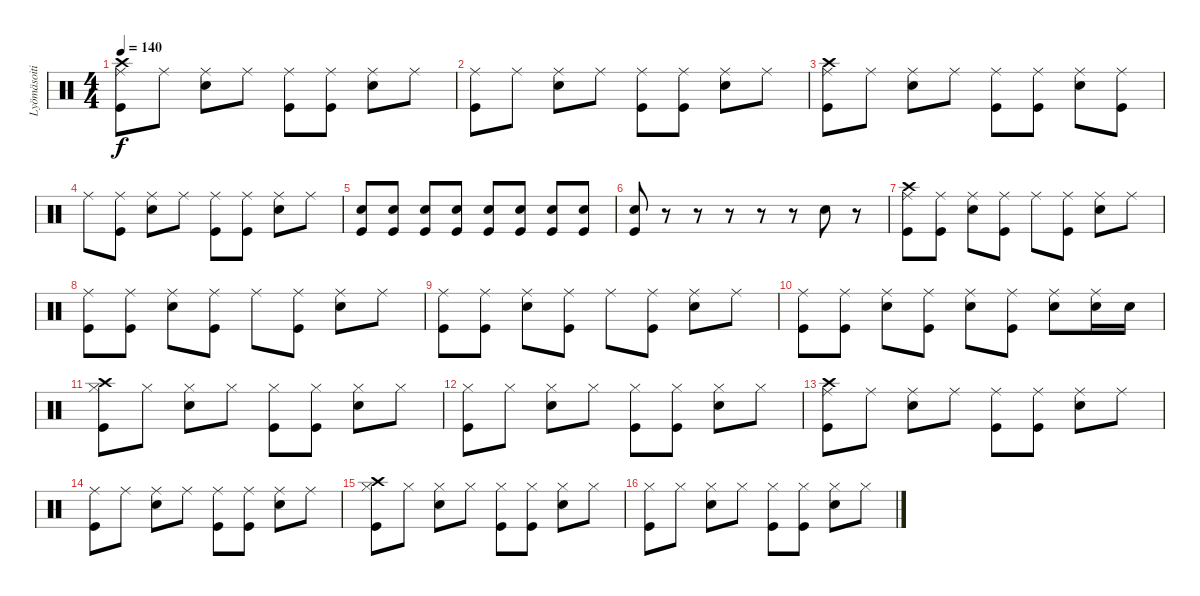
\track ("Lyömäsoitin" "Lyömäsoiti") {instrument percussion}
\staff {score}
\articulation defaults
\ts (4 4)
\tempo 140
\clef neutral
\ks c
("Crash high (hit)" "Ride (middle)" "Kick (hit)").8{dy f} "Ride (middle)".8 ("Ride (middle)" "Snare (hit) 2").8 "Ride (middle)".8 ("Ride (middle)" "Kick (hit)").8 ("Ride (middle)" "Kick (hit)").8 ("Ride (middle)" "Snare (hit) 2").8 "Ride (middle)".8 |
("Ride (middle)" "Kick (hit)").8 "Ride (middle)".8 ("Ride (middle)" "Snare (hit) 2").8 "Ride (middle)".8 ("Ride (middle)" "Kick (hit)").8 ("Ride (middle)" "Kick (hit)").8 ("Ride (middle)" "Snare (hit) 2").8 "Ride (middle)".8 |
("Crash high (hit)" "Ride (middle)" "Kick (hit)").8 "Ride (middle)".8 ("Ride (middle)" "Snare (hit) 2").8 "Ride (middle)".8 ("Ride (middle)" "Kick (hit)").8 ("Ride (middle)" "Kick (hit)").8 ("Ride (middle)" "Snare (hit) 2").8 ("Ride (middle)" "Kick (hit)").8 |
"Ride (middle)".8 ("Ride (middle)" "Kick (hit)").8 ("Ride (middle)" "Snare (hit) 2").8 "Ride (middle)".8 ("Ride (middle)" "Kick (hit)").8 ("Ride (middle)" "Kick (hit)").8 ("Ride (middle)" "Snare (hit) 2").8 "Ride (middle)".8 |
("Snare (hit) 2" "Kick (hit)").8 ("Snare (hit) 2" "Kick (hit)").8 ("Snare (hit) 2" "Kick (hit)").8 ("Snare (hit) 2" "Kick (hit)").8 ("Snare (hit) 2" "Kick (hit)").8 ("Snare (hit) 2" "Kick (hit)").8 ("Snare (hit) 2" "Kick (hit)").8 ("Snare (hit) 2" "Kick (hit)").8 |
("Snare (hit) 2" "Kick (hit)").8 r.8 r.8 r.8 r.8 r.8 "Snare (hit) 2".8 r.8 |
("Crash high (hit)" "Ride (middle)" "Kick (hit)").8 ("Ride (middle)" "Kick (hit)").8 ("Ride (middle)" "Snare (hit) 2").8 ("Ride (middle)" "Kick (hit)").8 "Ride (middle)".8 ("Ride (middle)" "Kick (hit)").8 ("Ride (middle)" "Snare (hit) 2").8 "Ride (middle)".8 |
("Ride (middle)" "Kick (hit)").8 ("Ride (middle)" "Kick (hit)").8 ("Ride (middle)" "Snare (hit) 2").8 ("Ride (middle)" "Kick (hit)").8 "Ride (middle)".8 ("Ride (middle)" "Kick (hit)").8 ("Ride (middle)" "Snare (hit) 2").8 "Ride (middle)".8 |
("Ride (middle)" "Kick (hit)").8 ("Ride (middle)" "Kick (hit)").8 ("Ride (middle)" "Snare (hit) 2").8 ("Ride (middle)" "Kick (hit)").8 "Ride (middle)".8 ("Ride (middle)" "Kick (hit)").8 ("Ride (middle)" "Snare (hit) 2").8 "Ride (middle)".8 |
("Ride (middle)" "Kick (hit)").8 ("Ride (middle)" "Kick (hit)").8 ("Ride (middle)" "Snare (hit) 2").8 ("Ride (middle)" "Kick (hit)").8 ("Ride (middle)" "Snare (hit) 2").8 ("Ride (middle)" "Kick (hit)").8 ("Ride (middle)" "Snare (hit) 2").8 ("Ride (middle)" "Snare (hit) 2").16 "Snare (hit) 2".16 |
("Crash high (hit)" "Hi-Hat (closed)" "Kick (hit)").8 "Hi-Hat (closed)".8 ("Hi-Hat (closed)" "Snare (hit) 2").8 "Hi-Hat (closed)".8 ("Hi-Hat (closed)" "Kick (hit)").8 ("Hi-Hat (closed)" "Kick (hit)").8 ("Hi-Hat (closed)" "Snare (hit) 2").8 "Hi-Hat (closed)".8 |
("Hi-Hat (closed)" "Kick (hit)").8 "Hi-Hat (closed)".8 ("Hi-Hat (closed)" "Snare (hit) 2").8 "Hi-Hat (closed)".8 ("Hi-Hat (closed)" "Kick (hit)").8 ("Hi-Hat (closed)" "Kick (hit)").8 ("Hi-Hat (closed)" "Snare (hit) 2").8 "Hi-Hat (closed)".8 |
("Crash high (hit)" "Ride (middle)" "Kick (hit)").8 "Ride (middle)".8 ("Ride (middle)" "Snare (hit) 2").8 "Ride (middle)".8 ("Ride (middle)" "Kick (hit)").8 ("Ride (middle)" "Kick (hit)").8 ("Ride (middle)" "Snare (hit) 2").8 "Ride (middle)".8 |
("Ride (middle)" "Kick (hit)").8 "Ride (middle)".8 ("Ride (middle)" "Snare (hit) 2").8 "Ride (middle)".8 ("Ride (middle)" "Kick (hit)").8 ("Ride (middle)" "Kick (hit)").8 ("Ride (middle)" "Snare (hit) 2").8 "Ride (middle)".8 |
("Crash high (hit)" "Hi-Hat (closed)" "Kick (hit)").8 "Hi-Hat (closed)".8 ("Hi-Hat (closed)" "Snare (hit) 2").8 "Hi-Hat (closed)".8 ("Hi-Hat (closed)" "Kick (hit)").8 ("Hi-Hat (closed)" "Kick (hit)").8 ("Hi-Hat (closed)" "Snare (hit) 2").8 "Hi-Hat (closed)".8 |
("Hi-Hat (closed)" "Kick (hit)").8 "Hi-Hat (closed)".8 ("Hi-Hat (closed)" "Snare (hit) 2").8 "Hi-Hat (closed)".8 ("Hi-Hat (closed)" "Kick (hit)").8 ("Hi-Hat (closed)" "Kick (hit)").8 ("Hi-Hat (closed)" "Snare (hit) 2").8 "Hi-Hat (closed)".8
